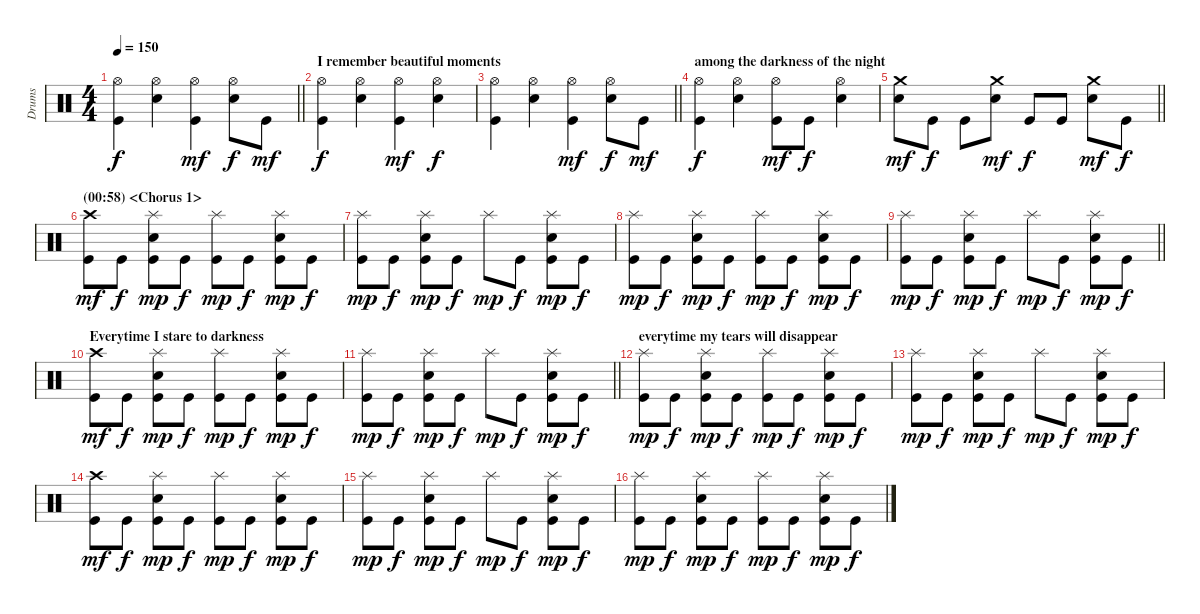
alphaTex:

\track ("Drums" "Drums") {instrument percussion}
\staff {score}
\articulation defaults
\ts (4 4)
\tempo 150
\clef neutral
\barLineRight lightlight
\ks c
("Hi-Hat (open)" "Kick (hit)").4{dy f} ("Hi-Hat (open)" "Snare (hit) 2").4 ("Hi-Hat (open)" "Kick (hit)").4{dy mf} ("Hi-Hat (open)" "Snare (hit) 2").8{dy f} "Kick (hit)".8{dy mf} |
\section ("" "I remember beautiful moments")
("Hi-Hat (open)" "Kick (hit)").4{dy f} ("Hi-Hat (open)" "Snare (hit) 2").4 ("Hi-Hat (open)" "Kick (hit)").4{dy mf} ("Hi-Hat (open)" "Snare (hit) 2").4{dy f} |
\barLineRight lightlight
("Hi-Hat (open)" "Kick (hit)").4 ("Hi-Hat (open)" "Snare (hit) 2").4 ("Hi-Hat (open)" "Kick (hit)").4{dy mf} ("Hi-Hat (open)" "Snare (hit) 2").8{dy f} "Kick (hit)".8{dy mf} |
\section ("" "among the darkness of the night")
("Hi-Hat (open)" "Kick (hit)").4{dy f} ("Hi-Hat (open)" "Snare (hit) 2").4 ("Hi-Hat (open)" "Kick (hit)").8{dy mf} "Kick (hit)".8{dy f} ("Hi-Hat (open)" "Snare (hit) 2").4 |
\barLineRight lightlight
("Crash medium (hit)" "Snare (hit) 2").8{dy mf} "Kick (hit)".8{dy f} "Kick (hit)".8 ("Crash medium (hit)" "Snare (hit) 2").8{dy mf} "Kick (hit)".8{dy f} "Kick (hit)".8 ("Crash medium (hit)" "Snare (hit) 2").8{dy mf} "Kick (hit)".8{dy f} |
\section ("" "(00:58) <Chorus 1>")
("Crash high (hit)" "Kick (hit)").8{dy mf} "Kick (hit)".8{dy f} ("Splash (hit)" "Snare (hit) 2" "Kick (hit)").8{dy mp} "Kick (hit)".8{dy f} ("Splash (hit)" "Kick (hit)").8{dy mp} "Kick (hit)".8{dy f} ("Splash (hit)" "Snare (hit) 2" "Kick (hit)").8{dy mp} "Kick (hit)".8{dy f} |
("Splash (hit)" "Kick (hit)").8{dy mp} "Kick (hit)".8{dy f} ("Splash (hit)" "Snare (hit) 2" "Kick (hit)").8{dy mp} "Kick (hit)".8{dy f} "Splash (hit)".8{dy mp} "Kick (hit)".8{dy f} ("Splash (hit)" "Snare (hit) 2" "Kick (hit)").8{dy mp} "Kick (hit)".8{dy f} |
("Splash (hit)" "Kick (hit)").8{dy mp} "Kick (hit)".8{dy f} ("Splash (hit)" "Snare (hit) 2" "Kick (hit)").8{dy mp} "Kick (hit)".8{dy f} ("Splash (hit)" "Kick (hit)").8{dy mp} "Kick (hit)".8{dy f} ("Splash (hit)" "Snare (hit) 2" "Kick (hit)").8{dy mp} "Kick (hit)".8{dy f} |
\barLineRight lightlight
("Splash (hit)" "Kick (hit)").8{dy mp} "Kick (hit)".8{dy f} ("Splash (hit)" "Snare (hit) 2" "Kick (hit)").8{dy mp} "Kick (hit)".8{dy f} "Splash (hit)".8{dy mp} "Kick (hit)".8{dy f} ("Splash (hit)" "Snare (hit) 2" "Kick (hit)").8{dy mp} "Kick (hit)".8{dy f} |
\section ("" "Everytime I stare to darkness")
("Crash high (hit)" "Kick (hit)").8{dy mf} "Kick (hit)".8{dy f} ("Splash (hit)" "Snare (hit) 2" "Kick (hit)").8{dy mp} "Kick (hit)".8{dy f} ("Splash (hit)" "Kick (hit)").8{dy mp} "Kick (hit)".8{dy f} ("Splash (hit)" "Snare (hit) 2" "Kick (hit)").8{dy mp} "Kick (hit)".8{dy f} |
\barLineRight lightlight
("Splash (hit)" "Kick (hit)").8{dy mp} "Kick (hit)".8{dy f} ("Splash (hit)" "Snare (hit) 2" "Kick (hit)").8{dy mp} "Kick (hit)".8{dy f} "Splash (hit)".8{dy mp} "Kick (hit)".8{dy f} ("Splash (hit)" "Snare (hit) 2" "Kick (hit)").8{dy mp} "Kick (hit)".8{dy f} |
\section ("" "everytime my tears will disappear")
("Splash (hit)" "Kick (hit)").8{dy mp} "Kick (hit)".8{dy f} ("Splash (hit)" "Snare (hit) 2" "Kick (hit)").8{dy mp} "Kick (hit)".8{dy f} ("Splash (hit)" "Kick (hit)").8{dy mp} "Kick (hit)".8{dy f} ("Splash (hit)" "Snare (hit) 2" "Kick (hit)").8{dy mp} "Kick (hit)".8{dy f} |
("Splash (hit)" "Kick (hit)").8{dy mp} "Kick (hit)".8{dy f} ("Splash (hit)" "Snare (hit) 2" "Kick (hit)").8{dy mp} "Kick (hit)".8{dy f} "Splash (hit)".8{dy mp} "Kick (hit)".8{dy f} ("Splash (hit)" "Snare (hit) 2" "Kick (hit)").8{dy mp} "Kick (hit)".8{dy f} |
("Crash high (hit)" "Kick (hit)").8{dy mf} "Kick (hit)".8{dy f} ("Splash (hit)" "Snare (hit) 2" "Kick (hit)").8{dy mp} "Kick (hit)".8{dy f} ("Splash (hit)" "Kick (hit)").8{dy mp} "Kick (hit)".8{dy f} ("Splash (hit)" "Snare (hit) 2" "Kick (hit)").8{dy mp} "Kick (hit)".8{dy f} |
("Splash (hit)" "Kick (hit)").8{dy mp} "Kick (hit)".8{dy f} ("Splash (hit)" "Snare (hit) 2" "Kick (hit)").8{dy mp} "Kick (hit)".8{dy f} "Splash (hit)".8{dy mp} "Kick (hit)".8{dy f} ("Splash (hit)" "Snare (hit) 2" "Kick (hit)").8{dy mp} "Kick (hit)".8{dy f} |
("Splash (hit)" "Kick (hit)").8{dy mp} "Kick (hit)".8{dy f} ("Splash (hit)" "Snare (hit) 2" "Kick (hit)").8{dy mp} "Kick (hit)".8{dy f} ("Splash (hit)" "Kick (hit)").8{dy mp} "Kick (hit)".8{dy f} ("Splash (hit)" "Snare (hit) 2" "Kick (hit)").8{dy mp} "Kick (hit)".8{dy f}
